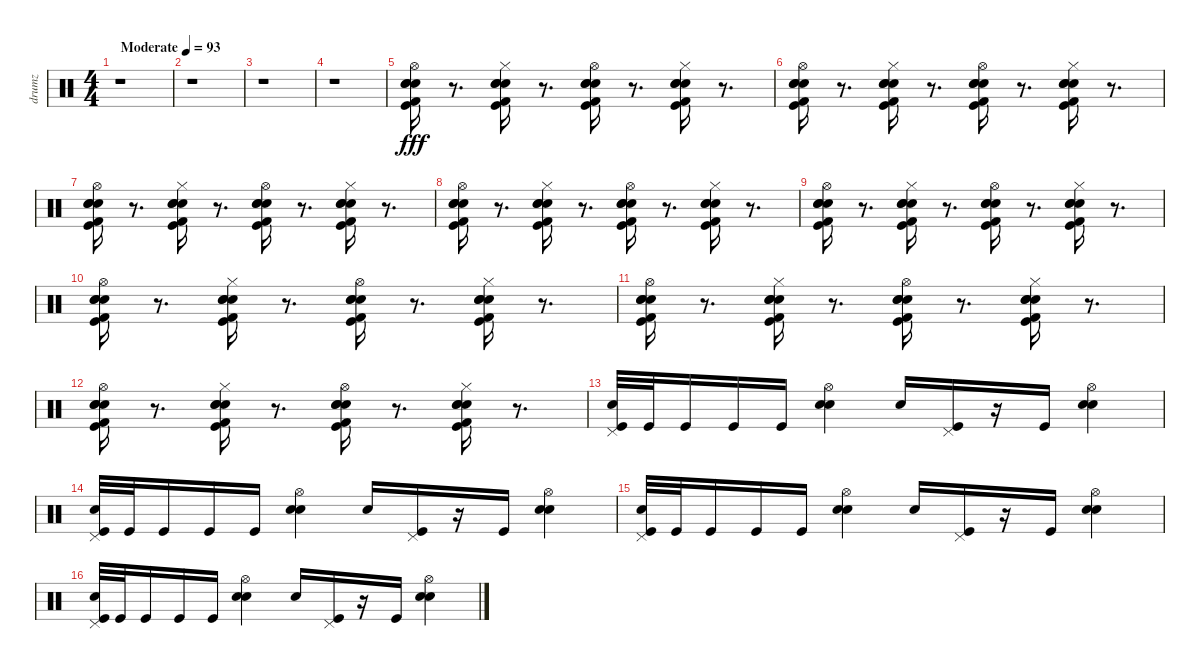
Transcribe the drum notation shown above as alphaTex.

\track ("drumz" "drumz") {instrument percussion}
\staff {score}
\articulation defaults
\ts (4 4)
\tempo (93 "Moderate")
\clef neutral
\ks c
r.1{dy fff} |
r.1 |
r.1 |
r.1 |
("Kick (hit)" "Snare (hit) 2" "Hand Clap (hit)" "Electric Snare (hit)" "Kick (hit) 2" "Hi-Hat (open)").16 r.8{d} ("Kick (hit)" "Snare (hit) 2" "Hand Clap (hit)" "Electric Snare (hit)" "Kick (hit) 2" "Hi-Hat (closed)").16 r.8{d} ("Kick (hit)" "Snare (hit) 2" "Hand Clap (hit)" "Electric Snare (hit)" "Kick (hit) 2" "Hi-Hat (open)").16 r.8{d} ("Kick (hit)" "Snare (hit) 2" "Hand Clap (hit)" "Electric Snare (hit)" "Kick (hit) 2" "Hi-Hat (closed)").16 r.8{d} |
("Kick (hit)" "Snare (hit) 2" "Hand Clap (hit)" "Electric Snare (hit)" "Kick (hit) 2" "Hi-Hat (open)").16 r.8{d} ("Kick (hit)" "Snare (hit) 2" "Hand Clap (hit)" "Electric Snare (hit)" "Kick (hit) 2" "Hi-Hat (closed)").16 r.8{d} ("Kick (hit)" "Snare (hit) 2" "Hand Clap (hit)" "Electric Snare (hit)" "Kick (hit) 2" "Hi-Hat (open)").16 r.8{d} ("Kick (hit)" "Snare (hit) 2" "Hand Clap (hit)" "Electric Snare (hit)" "Kick (hit) 2" "Hi-Hat (closed)").16 r.8{d} |
("Kick (hit)" "Snare (hit) 2" "Hand Clap (hit)" "Electric Snare (hit)" "Kick (hit) 2" "Hi-Hat (open)").16 r.8{d} ("Kick (hit)" "Snare (hit) 2" "Hand Clap (hit)" "Electric Snare (hit)" "Kick (hit) 2" "Hi-Hat (closed)").16 r.8{d} ("Kick (hit)" "Snare (hit) 2" "Hand Clap (hit)" "Electric Snare (hit)" "Kick (hit) 2" "Hi-Hat (open)").16 r.8{d} ("Kick (hit)" "Snare (hit) 2" "Hand Clap (hit)" "Electric Snare (hit)" "Kick (hit) 2" "Hi-Hat (closed)").16 r.8{d} |
("Kick (hit)" "Snare (hit) 2" "Hand Clap (hit)" "Electric Snare (hit)" "Kick (hit) 2" "Hi-Hat (open)").16 r.8{d} ("Kick (hit)" "Snare (hit) 2" "Hand Clap (hit)" "Electric Snare (hit)" "Kick (hit) 2" "Hi-Hat (closed)").16 r.8{d} ("Kick (hit)" "Snare (hit) 2" "Hand Clap (hit)" "Electric Snare (hit)" "Kick (hit) 2" "Hi-Hat (open)").16 r.8{d} ("Kick (hit)" "Snare (hit) 2" "Hand Clap (hit)" "Electric Snare (hit)" "Kick (hit) 2" "Hi-Hat (closed)").16 r.8{d} |
("Kick (hit)" "Snare (hit) 2" "Hand Clap (hit)" "Electric Snare (hit)" "Kick (hit) 2" "Hi-Hat (open)").16 r.8{d} ("Kick (hit)" "Snare (hit) 2" "Hand Clap (hit)" "Electric Snare (hit)" "Kick (hit) 2" "Hi-Hat (closed)").16 r.8{d} ("Kick (hit)" "Snare (hit) 2" "Hand Clap (hit)" "Electric Snare (hit)" "Kick (hit) 2" "Hi-Hat (open)").16 r.8{d} ("Kick (hit)" "Snare (hit) 2" "Hand Clap (hit)" "Electric Snare (hit)" "Kick (hit) 2" "Hi-Hat (closed)").16 r.8{d} |
("Kick (hit)" "Snare (hit) 2" "Hand Clap (hit)" "Electric Snare (hit)" "Kick (hit) 2" "Hi-Hat (open)").16 r.8{d} ("Kick (hit)" "Snare (hit) 2" "Hand Clap (hit)" "Electric Snare (hit)" "Kick (hit) 2" "Hi-Hat (closed)").16 r.8{d} ("Kick (hit)" "Snare (hit) 2" "Hand Clap (hit)" "Electric Snare (hit)" "Kick (hit) 2" "Hi-Hat (open)").16 r.8{d} ("Kick (hit)" "Snare (hit) 2" "Hand Clap (hit)" "Electric Snare (hit)" "Kick (hit) 2" "Hi-Hat (closed)").16 r.8{d} |
("Kick (hit)" "Snare (hit) 2" "Hand Clap (hit)" "Electric Snare (hit)" "Kick (hit) 2" "Hi-Hat (open)").16 r.8{d} ("Kick (hit)" "Snare (hit) 2" "Hand Clap (hit)" "Electric Snare (hit)" "Kick (hit) 2" "Hi-Hat (closed)").16 r.8{d} ("Kick (hit)" "Snare (hit) 2" "Hand Clap (hit)" "Electric Snare (hit)" "Kick (hit) 2" "Hi-Hat (open)").16 r.8{d} ("Kick (hit)" "Snare (hit) 2" "Hand Clap (hit)" "Electric Snare (hit)" "Kick (hit) 2" "Hi-Hat (closed)").16 r.8{d} |
("Kick (hit)" "Snare (hit) 2" "Hand Clap (hit)" "Electric Snare (hit)" "Kick (hit) 2" "Hi-Hat (open)").16 r.8{d} ("Kick (hit)" "Snare (hit) 2" "Hand Clap (hit)" "Electric Snare (hit)" "Kick (hit) 2" "Hi-Hat (closed)").16 r.8{d} ("Kick (hit)" "Snare (hit) 2" "Hand Clap (hit)" "Electric Snare (hit)" "Kick (hit) 2" "Hi-Hat (open)").16 r.8{d} ("Kick (hit)" "Snare (hit) 2" "Hand Clap (hit)" "Electric Snare (hit)" "Kick (hit) 2" "Hi-Hat (closed)").16 r.8{d} |
("Kick (hit)" "Pedal Hi-Hat (hit)" "Hand Clap (hit)").32 "Kick (hit)".32 "Kick (hit)".16 "Kick (hit)".16 "Kick (hit)".16 ("Snare (hit) 2" "Hi-Hat (open)" "Hand Clap (hit)").4 "Hand Clap (hit)".16 ("Kick (hit)" "Pedal Hi-Hat (hit)").16 r.16 "Kick (hit)".16 ("Snare (hit) 2" "Hi-Hat (open)" "Hand Clap (hit)").4 |
("Kick (hit)" "Pedal Hi-Hat (hit)" "Hand Clap (hit)").32 "Kick (hit)".32 "Kick (hit)".16 "Kick (hit)".16 "Kick (hit)".16 ("Snare (hit) 2" "Hi-Hat (open)" "Hand Clap (hit)").4 "Hand Clap (hit)".16 ("Kick (hit)" "Pedal Hi-Hat (hit)").16 r.16 "Kick (hit)".16 ("Snare (hit) 2" "Hi-Hat (open)" "Hand Clap (hit)").4 |
("Kick (hit)" "Pedal Hi-Hat (hit)" "Hand Clap (hit)").32 "Kick (hit)".32 "Kick (hit)".16 "Kick (hit)".16 "Kick (hit)".16 ("Snare (hit) 2" "Hi-Hat (open)" "Hand Clap (hit)").4 "Hand Clap (hit)".16 ("Kick (hit)" "Pedal Hi-Hat (hit)").16 r.16 "Kick (hit)".16 ("Snare (hit) 2" "Hi-Hat (open)" "Hand Clap (hit)").4 |
("Kick (hit)" "Pedal Hi-Hat (hit)" "Hand Clap (hit)").32 "Kick (hit)".32 "Kick (hit)".16 "Kick (hit)".16 "Kick (hit)".16 ("Snare (hit) 2" "Hi-Hat (open)" "Hand Clap (hit)").4 "Hand Clap (hit)".16 ("Kick (hit)" "Pedal Hi-Hat (hit)").16 r.16 "Kick (hit)".16 ("Snare (hit) 2" "Hi-Hat (open)" "Hand Clap (hit)").4
